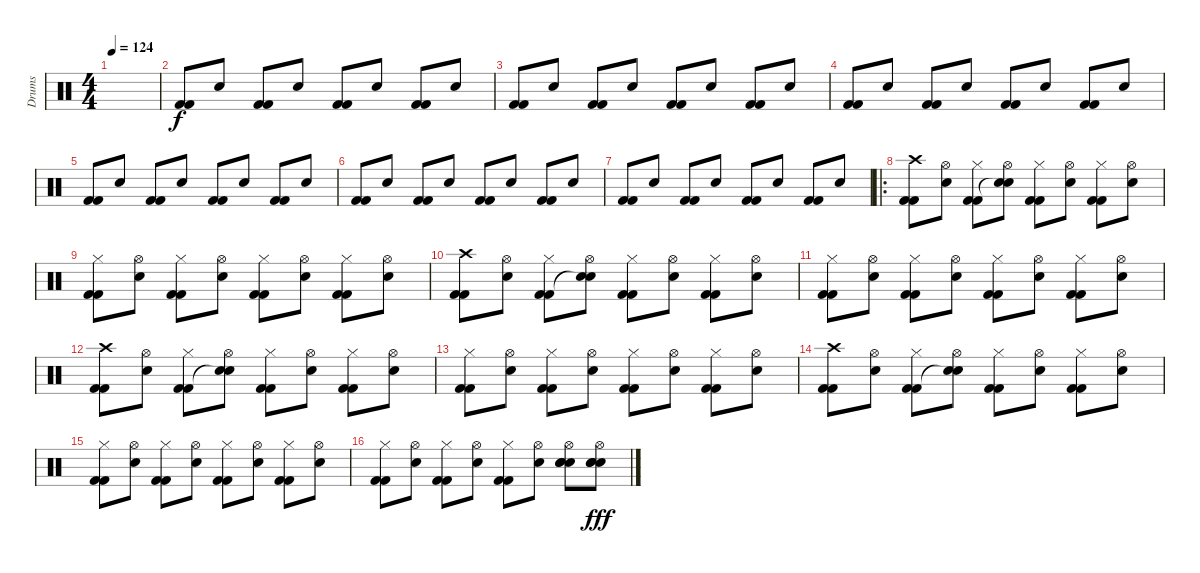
\track ("Drums" "Drums") {instrument percussion}
\staff {score}
\articulation defaults
\ts (4 4)
\tempo 124
\clef neutral
\ks c
|
("Kick (hit) 2" "Kick (hit) 2").8 "Hand Clap (hit)".8 ("Kick (hit) 2" "Kick (hit) 2").8 "Hand Clap (hit)".8 ("Kick (hit) 2" "Kick (hit) 2").8 "Hand Clap (hit)".8 ("Kick (hit) 2" "Kick (hit) 2").8 "Hand Clap (hit)".8 |
("Kick (hit) 2" "Kick (hit) 2").8 "Hand Clap (hit)".8 ("Kick (hit) 2" "Kick (hit) 2").8 "Hand Clap (hit)".8 ("Kick (hit) 2" "Kick (hit) 2").8 "Hand Clap (hit)".8 ("Kick (hit) 2" "Kick (hit) 2").8 "Hand Clap (hit)".8 |
("Kick (hit) 2" "Kick (hit) 2").8 "Hand Clap (hit)".8 ("Kick (hit) 2" "Kick (hit) 2").8 "Hand Clap (hit)".8 ("Kick (hit) 2" "Kick (hit) 2").8 "Hand Clap (hit)".8 ("Kick (hit) 2" "Kick (hit) 2").8 "Hand Clap (hit)".8 |
("Kick (hit) 2" "Kick (hit) 2").8 "Hand Clap (hit)".8 ("Kick (hit) 2" "Kick (hit) 2").8 "Hand Clap (hit)".8 ("Kick (hit) 2" "Kick (hit) 2").8 "Hand Clap (hit)".8 ("Kick (hit) 2" "Kick (hit) 2").8 "Hand Clap (hit)".8 |
("Kick (hit) 2" "Kick (hit) 2").8 "Hand Clap (hit)".8 ("Kick (hit) 2" "Kick (hit) 2").8 "Hand Clap (hit)".8 ("Kick (hit) 2" "Kick (hit) 2").8 "Hand Clap (hit)".8 ("Kick (hit) 2" "Kick (hit) 2").8 "Hand Clap (hit)".8 |
("Kick (hit) 2" "Kick (hit) 2").8 "Hand Clap (hit)".8 ("Kick (hit) 2" "Kick (hit) 2").8 "Hand Clap (hit)".8 ("Kick (hit) 2" "Kick (hit) 2").8 "Hand Clap (hit)".8 ("Kick (hit) 2" "Kick (hit) 2").8 "Hand Clap (hit)".8 |
\ro
("Kick (hit) 2" "Kick (hit) 2" "Crash high (hit)").8 ("Hand Clap (hit)" "Hi-Hat (open)").8 ("Kick (hit) 2" "Kick (hit) 2" "Hi-Hat (closed)").8 ("Hand Clap (hit)" "Snare (hit)"{t} "Hi-Hat (open)").8 ("Kick (hit) 2" "Kick (hit) 2" "Hi-Hat (closed)").8 ("Hand Clap (hit)" "Hi-Hat (open)").8 ("Kick (hit) 2" "Kick (hit) 2" "Hi-Hat (closed)").8 ("Hand Clap (hit)" "Hi-Hat (open)").8 |
("Kick (hit) 2" "Kick (hit) 2" "Hi-Hat (closed)").8 ("Hand Clap (hit)" "Hi-Hat (open)").8 ("Kick (hit) 2" "Kick (hit) 2" "Hi-Hat (closed)").8 ("Hand Clap (hit)" "Hi-Hat (open)").8 ("Kick (hit) 2" "Kick (hit) 2" "Hi-Hat (closed)").8 ("Hand Clap (hit)" "Hi-Hat (open)").8 ("Kick (hit) 2" "Kick (hit) 2" "Hi-Hat (closed)").8 ("Hand Clap (hit)" "Hi-Hat (open)").8 |
("Kick (hit) 2" "Kick (hit) 2" "Crash high (hit)").8 ("Hand Clap (hit)" "Hi-Hat (open)").8 ("Kick (hit) 2" "Kick (hit) 2" "Hi-Hat (closed)").8 ("Hand Clap (hit)" "Snare (hit)"{t} "Hi-Hat (open)").8 ("Kick (hit) 2" "Kick (hit) 2" "Hi-Hat (closed)").8 ("Hand Clap (hit)" "Hi-Hat (open)").8 ("Kick (hit) 2" "Kick (hit) 2" "Hi-Hat (closed)").8 ("Hand Clap (hit)" "Hi-Hat (open)").8 |
("Kick (hit) 2" "Kick (hit) 2" "Hi-Hat (closed)").8 ("Hand Clap (hit)" "Hi-Hat (open)").8 ("Kick (hit) 2" "Kick (hit) 2" "Hi-Hat (closed)").8 ("Hand Clap (hit)" "Hi-Hat (open)").8 ("Kick (hit) 2" "Kick (hit) 2" "Hi-Hat (closed)").8 ("Hand Clap (hit)" "Hi-Hat (open)").8 ("Kick (hit) 2" "Kick (hit) 2" "Hi-Hat (closed)").8 ("Hand Clap (hit)" "Hi-Hat (open)").8 |
("Kick (hit) 2" "Kick (hit) 2" "Crash high (hit)").8 ("Hand Clap (hit)" "Hi-Hat (open)").8 ("Kick (hit) 2" "Kick (hit) 2" "Hi-Hat (closed)").8 ("Hand Clap (hit)" "Snare (hit)"{t} "Hi-Hat (open)").8 ("Kick (hit) 2" "Kick (hit) 2" "Hi-Hat (closed)").8 ("Hand Clap (hit)" "Hi-Hat (open)").8 ("Kick (hit) 2" "Kick (hit) 2" "Hi-Hat (closed)").8 ("Hand Clap (hit)" "Hi-Hat (open)").8 |
("Kick (hit) 2" "Kick (hit) 2" "Hi-Hat (closed)").8 ("Hand Clap (hit)" "Hi-Hat (open)").8 ("Kick (hit) 2" "Kick (hit) 2" "Hi-Hat (closed)").8 ("Hand Clap (hit)" "Hi-Hat (open)").8 ("Kick (hit) 2" "Kick (hit) 2" "Hi-Hat (closed)").8 ("Hand Clap (hit)" "Hi-Hat (open)").8 ("Kick (hit) 2" "Kick (hit) 2" "Hi-Hat (closed)").8 ("Hand Clap (hit)" "Hi-Hat (open)").8 |
("Kick (hit) 2" "Kick (hit) 2" "Crash high (hit)").8 ("Hand Clap (hit)" "Hi-Hat (open)").8 ("Kick (hit) 2" "Kick (hit) 2" "Hi-Hat (closed)").8 ("Hand Clap (hit)" "Snare (hit)"{t} "Hi-Hat (open)").8 ("Kick (hit) 2" "Kick (hit) 2" "Hi-Hat (closed)").8 ("Hand Clap (hit)" "Hi-Hat (open)").8 ("Kick (hit) 2" "Kick (hit) 2" "Hi-Hat (closed)").8 ("Hand Clap (hit)" "Hi-Hat (open)").8 |
("Kick (hit) 2" "Kick (hit) 2" "Hi-Hat (closed)").8 ("Hand Clap (hit)" "Hi-Hat (open)").8 ("Kick (hit) 2" "Kick (hit) 2" "Hi-Hat (closed)").8 ("Hand Clap (hit)" "Hi-Hat (open)").8 ("Kick (hit) 2" "Kick (hit) 2" "Hi-Hat (closed)").8 ("Hand Clap (hit)" "Hi-Hat (open)").8 ("Kick (hit) 2" "Kick (hit) 2" "Hi-Hat (closed)").8 ("Hand Clap (hit)" "Hi-Hat (open)").8 |
("Kick (hit) 2" "Kick (hit) 2" "Hi-Hat (closed)").8 ("Hand Clap (hit)" "Hi-Hat (open)").8 ("Kick (hit) 2" "Kick (hit) 2" "Hi-Hat (closed)").8 ("Hand Clap (hit)" "Hi-Hat (open)").8 ("Kick (hit) 2" "Kick (hit) 2" "Hi-Hat (closed)").8 ("Hand Clap (hit)" "Hi-Hat (open)").8 ("Hand Clap (hit)" "Electric Snare (hit)" "Electric Snare (hit)" "Hi-Hat (open)").8 ("Hand Clap (hit)" "Electric Snare (hit)" "Electric Snare (hit)" "Hi-Hat (open)").8{dy fff}
